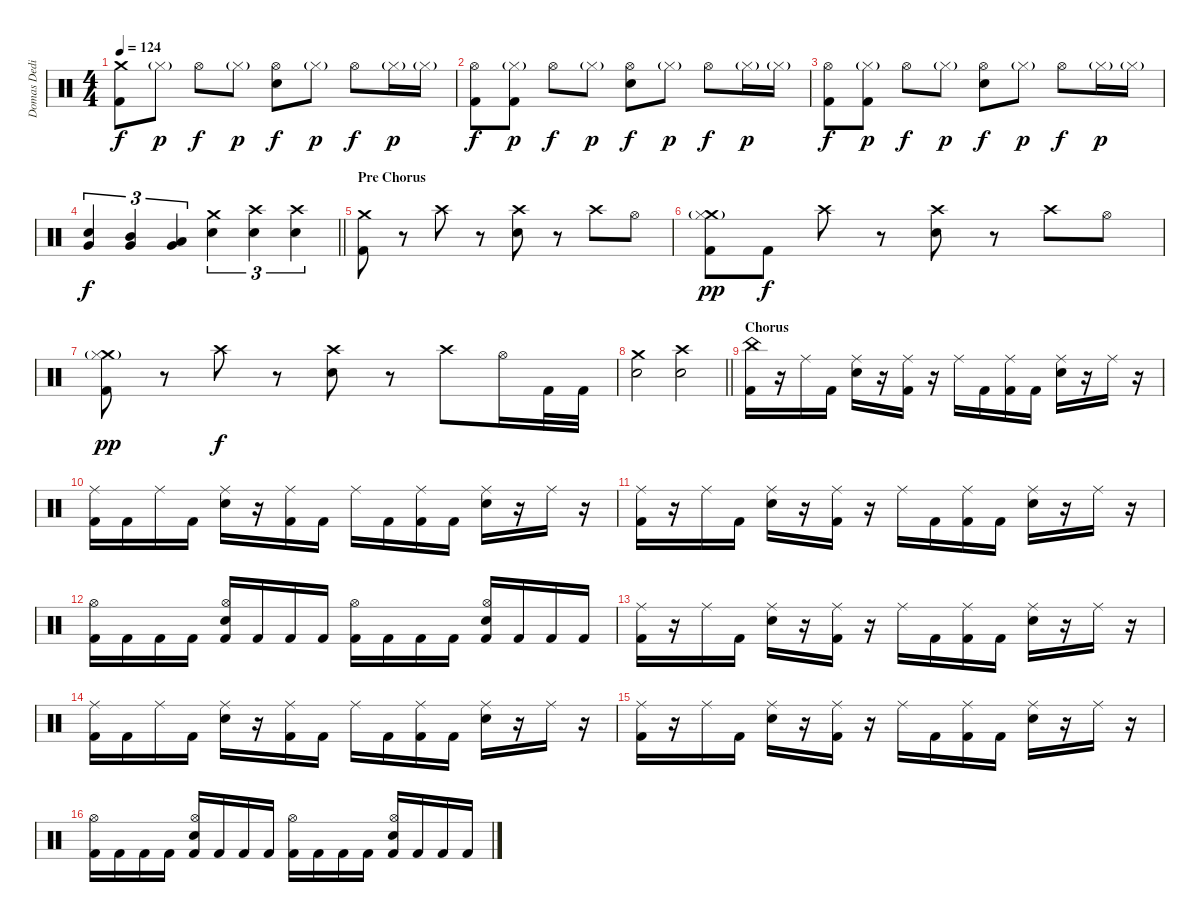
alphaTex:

\track ("Domas Dedinas" "Domas Dedi") {instrument percussion}
\staff {score}
\articulation defaults
\ts (4 4)
\tempo 124
\clef neutral
\ks c
("Crash medium (hit)" "Kick (hit) 2").8{dy f} "Hi-Hat (closed)"{g}.8{dy p} "Hi-Hat (open)".8{dy f} "Hi-Hat (closed)"{g}.8{dy p} ("Hi-Hat (open)" "Snare (hit) 2").8{dy f} "Hi-Hat (closed)"{g}.8{dy p} "Hi-Hat (open)".8{dy f} "Hi-Hat (closed)"{g}.16{dy p} "Hi-Hat (closed)"{g}.16 |
("Hi-Hat (open)" "Kick (hit) 2").8{dy f} ("Hi-Hat (closed)"{g} "Kick (hit) 2").8{dy p} "Hi-Hat (open)".8{dy f} "Hi-Hat (closed)"{g}.8{dy p} ("Hi-Hat (open)" "Snare (hit) 2").8{dy f} "Hi-Hat (closed)"{g}.8{dy p} "Hi-Hat (open)".8{dy f} "Hi-Hat (closed)"{g}.16{dy p} "Hi-Hat (closed)"{g}.16 |
("Hi-Hat (open)" "Kick (hit) 2").8{dy f} ("Hi-Hat (closed)"{g} "Kick (hit) 2").8{dy p} "Hi-Hat (open)".8{dy f} "Hi-Hat (closed)"{g}.8{dy p} ("Hi-Hat (open)" "Snare (hit) 2").8{dy f} "Hi-Hat (closed)"{g}.8{dy p} "Hi-Hat (open)".8{dy f} "Hi-Hat (closed)"{g}.16{dy p} "Hi-Hat (closed)"{g}.16 |
\barLineRight lightlight
("Very Low Tom (hit)" "Snare (hit) 2").4{tu (3 2) dy f} ("Mid Tom (hit)" "Very Low Tom (hit)").4{tu (3 2)} ("Low Tom (hit)" "Very Low Tom (hit)").4{tu (3 2)} ("Crash medium (hit)" "Snare (hit) 2").4{tu (3 2)} ("Crash high (hit)" "Snare (hit) 2").4{tu (3 2)} ("Crash high (hit)" "Snare (hit) 2").4{tu (3 2)} |
\section ("" "Pre Chorus")
("Crash medium (hit)" "Kick (hit) 2").8 r.8 "Crash high (hit)".8 r.8 ("Crash high (hit)" "Snare (hit) 2").8 r.8 "Crash high (hit)".8 "Hi-Hat (open)".8 |
("Crash medium (hit)" "Hi-Hat (closed)"{g} "Kick (hit) 2").8{dy pp} "Kick (hit) 2".8{dy f} "Crash high (hit)".8 r.8 ("Crash high (hit)" "Snare (hit) 2").8 r.8 "Crash high (hit)".8 "Hi-Hat (open)".8 |
("Crash medium (hit)" "Hi-Hat (closed)"{g} "Kick (hit) 2").8{dy pp} r.8 "Crash high (hit)".8{dy f} r.8 ("Crash high (hit)" "Snare (hit) 2").8 r.8 "Crash high (hit)".8 "Hi-Hat (open)".16 "Kick (hit) 2".32 "Kick (hit) 2".32 |
\barLineRight lightlight
("Crash medium (hit)" "Snare (hit) 2").2 ("Crash high (hit)" "Snare (hit) 2").2 |
\section ("" "Chorus")
("China (hit)" "Kick (hit) 2").16 r.16 "Ride (middle)".16 "Kick (hit) 2".16 ("Ride (middle)" "Snare (hit) 2").16 r.16 ("Ride (middle)" "Kick (hit) 2").16 r.16 "Ride (middle)".16 "Kick (hit) 2".16 ("Ride (middle)" "Kick (hit) 2").16 "Kick (hit) 2".16 ("Ride (middle)" "Snare (hit) 2").16 r.16 "Ride (middle)".16 r.16 |
("Ride (middle)" "Kick (hit) 2").16 "Kick (hit) 2".16 "Ride (middle)".16 "Kick (hit) 2".16 ("Ride (middle)" "Snare (hit) 2").16 r.16 ("Ride (middle)" "Kick (hit) 2").16 "Kick (hit) 2".16 "Ride (middle)".16 "Kick (hit) 2".16 ("Ride (middle)" "Kick (hit) 2").16 "Kick (hit) 2".16 ("Ride (middle)" "Snare (hit) 2").16 r.16 "Ride (middle)".16 r.16 |
("Ride (middle)" "Kick (hit) 2").16 r.16 "Ride (middle)".16 "Kick (hit) 2".16 ("Ride (middle)" "Snare (hit) 2").16 r.16 ("Ride (middle)" "Kick (hit) 2").16 r.16 "Ride (middle)".16 "Kick (hit) 2".16 ("Ride (middle)" "Kick (hit) 2").16 "Kick (hit) 2".16 ("Ride (middle)" "Snare (hit) 2").16 r.16 "Ride (middle)".16 r.16 |
("Hi-Hat (open)" "Kick (hit) 2").16 "Kick (hit) 2".16 "Kick (hit) 2".16 "Kick (hit) 2".16 ("Hi-Hat (open)" "Snare (hit) 2" "Kick (hit) 2").16 "Kick (hit) 2".16 "Kick (hit) 2".16 "Kick (hit) 2".16 ("Hi-Hat (open)" "Kick (hit) 2").16 "Kick (hit) 2".16 "Kick (hit) 2".16 "Kick (hit) 2".16 ("Hi-Hat (open)" "Snare (hit) 2" "Kick (hit) 2").16 "Kick (hit) 2".16 "Kick (hit) 2".16 "Kick (hit) 2".16 |
("Ride (middle)" "Kick (hit) 2").16 r.16 "Ride (middle)".16 "Kick (hit) 2".16 ("Ride (middle)" "Snare (hit) 2").16 r.16 ("Ride (middle)" "Kick (hit) 2").16 r.16 "Ride (middle)".16 "Kick (hit) 2".16 ("Ride (middle)" "Kick (hit) 2").16 "Kick (hit) 2".16 ("Ride (middle)" "Snare (hit) 2").16 r.16 "Ride (middle)".16 r.16 |
("Ride (middle)" "Kick (hit) 2").16 "Kick (hit) 2".16 "Ride (middle)".16 "Kick (hit) 2".16 ("Ride (middle)" "Snare (hit) 2").16 r.16 ("Ride (middle)" "Kick (hit) 2").16 "Kick (hit) 2".16 "Ride (middle)".16 "Kick (hit) 2".16 ("Ride (middle)" "Kick (hit) 2").16 "Kick (hit) 2".16 ("Ride (middle)" "Snare (hit) 2").16 r.16 "Ride (middle)".16 r.16 |
("Ride (middle)" "Kick (hit) 2").16 r.16 "Ride (middle)".16 "Kick (hit) 2".16 ("Ride (middle)" "Snare (hit) 2").16 r.16 ("Ride (middle)" "Kick (hit) 2").16 r.16 "Ride (middle)".16 "Kick (hit) 2".16 ("Ride (middle)" "Kick (hit) 2").16 "Kick (hit) 2".16 ("Ride (middle)" "Snare (hit) 2").16 r.16 "Ride (middle)".16 r.16 |
("Hi-Hat (open)" "Kick (hit) 2").16 "Kick (hit) 2".16 "Kick (hit) 2".16 "Kick (hit) 2".16 ("Hi-Hat (open)" "Snare (hit) 2" "Kick (hit) 2").16 "Kick (hit) 2".16 "Kick (hit) 2".16 "Kick (hit) 2".16 ("Hi-Hat (open)" "Kick (hit) 2").16 "Kick (hit) 2".16 "Kick (hit) 2".16 "Kick (hit) 2".16 ("Hi-Hat (open)" "Snare (hit) 2" "Kick (hit) 2").16 "Kick (hit) 2".16 "Kick (hit) 2".16 "Kick (hit) 2".16
